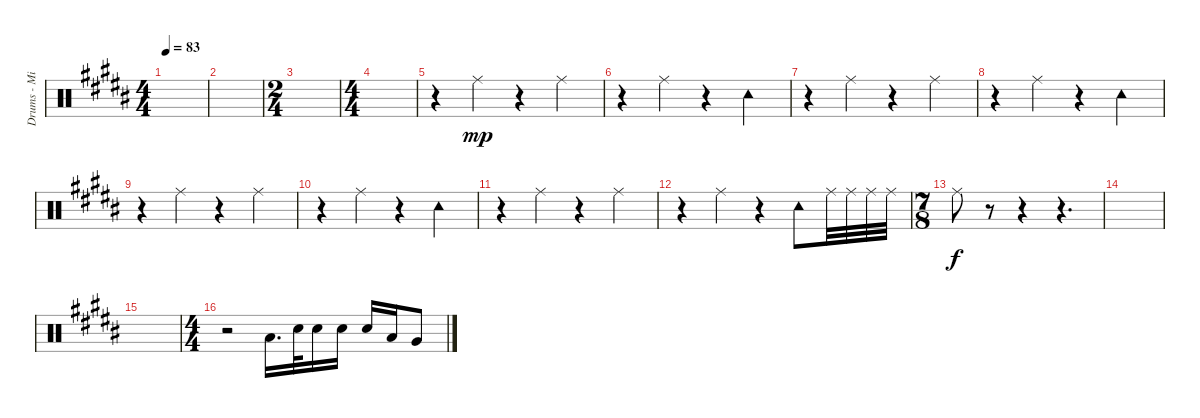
\track ("Drums - Mike Portnoy" "Drums - Mi") {instrument percussion}
\staff {score}
\articulation defaults
\ts (4 4)
\tempo 83
\clef neutral
\ks b
|
|
\ts (2 4)
|
\ts (4 4)
|
r.4 "Ride (middle)".4{dy mp} r.4 "Ride (middle)".4 |
r.4 "Ride (middle)".4 r.4 "Tambourine (hit)".4 |
r.4 "Ride (middle)".4 r.4 "Ride (middle)".4 |
r.4 "Ride (middle)".4 r.4 "Tambourine (hit)".4 |
r.4 "Ride (middle)".4 r.4 "Ride (middle)".4 |
r.4 "Ride (middle)".4 r.4 "Tambourine (hit)".4 |
r.4 "Ride (middle)".4 r.4 "Ride (middle)".4 |
r.4 "Ride (middle)".4 r.4 "Tambourine (hit)".8 "Ride (middle)".32 "Ride (middle)".32 "Ride (middle)".32 "Ride (middle)".32 |
\ts (7 8)
"Ride (middle)".8{dy f} r.8 r.4 r.4{d} |
|
|
\ts (4 4)
r.2 "Low Tom (hit)".16{d} "Snare (hit) 2".32 "Snare (hit) 2".16 "Snare (hit) 2".16 "Snare (hit) 2".16 "Low Tom (hit)".16 "Very Low Tom (hit)".8
